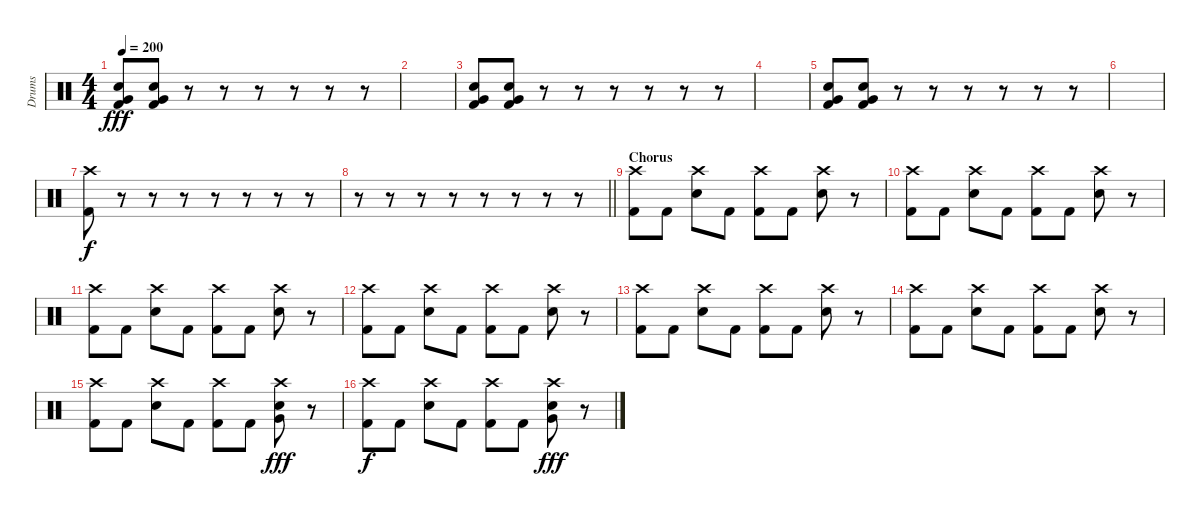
\track ("Drums" "Drums") {instrument percussion}
\staff {score}
\articulation defaults
\ts (4 4)
\tempo 200
\clef neutral
\ks c
("Very Low Tom (hit)" "Electric Snare (hit)" "Kick (hit) 2").8{dy fff} ("Very Low Tom (hit)" "Electric Snare (hit)" "Kick (hit) 2").8 r.8 r.8 r.8 r.8 r.8 r.8 |
|
("Very Low Tom (hit)" "Electric Snare (hit)" "Kick (hit) 2").8 ("Very Low Tom (hit)" "Electric Snare (hit)" "Kick (hit) 2").8 r.8 r.8 r.8 r.8 r.8 r.8 |
|
("Very Low Tom (hit)" "Electric Snare (hit)" "Kick (hit) 2").8 ("Very Low Tom (hit)" "Electric Snare (hit)" "Kick (hit) 2").8 r.8 r.8 r.8 r.8 r.8 r.8 |
|
("Crash high (hit)" "Kick (hit) 2").8{dy f} r.8 r.8 r.8 r.8 r.8 r.8 r.8 |
\barLineRight lightlight
r.8 r.8 r.8 r.8 r.8 r.8 r.8 r.8 |
\section ("" "Chorus")
("Crash high (hit)" "Kick (hit) 2").8 "Kick (hit) 2".8 ("Crash high (hit)" "Electric Snare (hit)").8 "Kick (hit) 2".8 ("Crash high (hit)" "Kick (hit) 2").8 "Kick (hit) 2".8 ("Crash high (hit)" "Electric Snare (hit)").8 r.8 |
("Crash high (hit)" "Kick (hit) 2").8 "Kick (hit) 2".8 ("Crash high (hit)" "Electric Snare (hit)").8 "Kick (hit) 2".8 ("Crash high (hit)" "Kick (hit) 2").8 "Kick (hit) 2".8 ("Crash high (hit)" "Electric Snare (hit)").8 r.8 |
("Crash high (hit)" "Kick (hit) 2").8 "Kick (hit) 2".8 ("Crash high (hit)" "Electric Snare (hit)").8 "Kick (hit) 2".8 ("Crash high (hit)" "Kick (hit) 2").8 "Kick (hit) 2".8 ("Crash high (hit)" "Electric Snare (hit)").8 r.8 |
("Crash high (hit)" "Kick (hit) 2").8 "Kick (hit) 2".8 ("Crash high (hit)" "Electric Snare (hit)").8 "Kick (hit) 2".8 ("Crash high (hit)" "Kick (hit) 2").8 "Kick (hit) 2".8 ("Crash high (hit)" "Electric Snare (hit)").8 r.8 |
("Crash high (hit)" "Kick (hit) 2").8 "Kick (hit) 2".8 ("Crash high (hit)" "Electric Snare (hit)").8 "Kick (hit) 2".8 ("Crash high (hit)" "Kick (hit) 2").8 "Kick (hit) 2".8 ("Crash high (hit)" "Electric Snare (hit)").8 r.8 |
("Crash high (hit)" "Kick (hit) 2").8 "Kick (hit) 2".8 ("Crash high (hit)" "Electric Snare (hit)").8 "Kick (hit) 2".8 ("Crash high (hit)" "Kick (hit) 2").8 "Kick (hit) 2".8 ("Crash high (hit)" "Electric Snare (hit)").8 r.8 |
("Crash high (hit)" "Kick (hit) 2").8 "Kick (hit) 2".8 ("Crash high (hit)" "Electric Snare (hit)").8 "Kick (hit) 2".8 ("Crash high (hit)" "Kick (hit) 2").8 "Kick (hit) 2".8 ("Crash high (hit)" "Very Low Tom (hit)" "Electric Snare (hit)").8{dy fff} r.8 |
("Crash high (hit)" "Kick (hit) 2").8{dy f} "Kick (hit) 2".8 ("Crash high (hit)" "Electric Snare (hit)").8 "Kick (hit) 2".8 ("Crash high (hit)" "Kick (hit) 2").8 "Kick (hit) 2".8 ("Crash high (hit)" "Very Low Tom (hit)" "Electric Snare (hit)").8{dy fff} r.8
